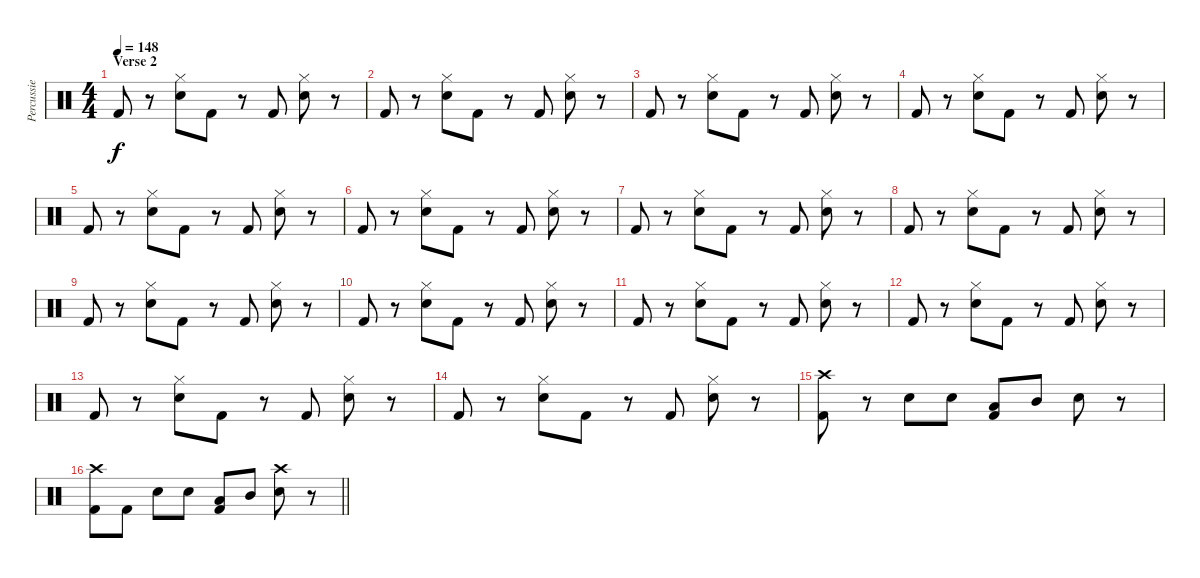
\track ("Percussie" "Percussie") {instrument percussion}
\staff {score}
\articulation defaults
\ts (4 4)
\section ("" "Verse 2")
\tempo 148
\clef neutral
\ks c "Kick (hit) 2".8{dy f}
r.8 ("Hi-Hat (closed)" "Electric Snare (hit)").8 "Kick (hit) 2".8 r.8 "Kick (hit) 2".8 ("Hi-Hat (closed)" "Electric Snare (hit)").8 r.8 |
"Kick (hit) 2".8 r.8 ("Hi-Hat (closed)" "Electric Snare (hit)").8 "Kick (hit) 2".8 r.8 "Kick (hit) 2".8 ("Hi-Hat (closed)" "Electric Snare (hit)").8 r.8 |
"Kick (hit) 2".8 r.8 ("Hi-Hat (closed)" "Electric Snare (hit)").8 "Kick (hit) 2".8 r.8 "Kick (hit) 2".8 ("Hi-Hat (closed)" "Electric Snare (hit)").8 r.8 |
"Kick (hit) 2".8 r.8 ("Hi-Hat (closed)" "Electric Snare (hit)").8 "Kick (hit) 2".8 r.8 "Kick (hit) 2".8 ("Hi-Hat (closed)" "Electric Snare (hit)").8 r.8 |
"Kick (hit) 2".8 r.8 ("Hi-Hat (closed)" "Electric Snare (hit)").8 "Kick (hit) 2".8 r.8 "Kick (hit) 2".8 ("Hi-Hat (closed)" "Electric Snare (hit)").8 r.8 |
"Kick (hit) 2".8 r.8 ("Hi-Hat (closed)" "Electric Snare (hit)").8 "Kick (hit) 2".8 r.8 "Kick (hit) 2".8 ("Hi-Hat (closed)" "Electric Snare (hit)").8 r.8 |
"Kick (hit) 2".8 r.8 ("Hi-Hat (closed)" "Electric Snare (hit)").8 "Kick (hit) 2".8 r.8 "Kick (hit) 2".8 ("Hi-Hat (closed)" "Electric Snare (hit)").8 r.8 |
"Kick (hit) 2".8 r.8 ("Hi-Hat (closed)" "Electric Snare (hit)").8 "Kick (hit) 2".8 r.8 "Kick (hit) 2".8 ("Hi-Hat (closed)" "Electric Snare (hit)").8 r.8 |
"Kick (hit) 2".8 r.8 ("Hi-Hat (closed)" "Electric Snare (hit)").8 "Kick (hit) 2".8 r.8 "Kick (hit) 2".8 ("Hi-Hat (closed)" "Electric Snare (hit)").8 r.8 |
"Kick (hit) 2".8 r.8 ("Hi-Hat (closed)" "Electric Snare (hit)").8 "Kick (hit) 2".8 r.8 "Kick (hit) 2".8 ("Hi-Hat (closed)" "Electric Snare (hit)").8 r.8 |
"Kick (hit) 2".8 r.8 ("Hi-Hat (closed)" "Electric Snare (hit)").8 "Kick (hit) 2".8 r.8 "Kick (hit) 2".8 ("Hi-Hat (closed)" "Electric Snare (hit)").8 r.8 |
"Kick (hit) 2".8 r.8 ("Hi-Hat (closed)" "Electric Snare (hit)").8 "Kick (hit) 2".8 r.8 "Kick (hit) 2".8 ("Hi-Hat (closed)" "Electric Snare (hit)").8 r.8 |
"Kick (hit) 2".8 r.8 ("Hi-Hat (closed)" "Electric Snare (hit)").8 "Kick (hit) 2".8 r.8 "Kick (hit) 2".8 ("Hi-Hat (closed)" "Electric Snare (hit)").8 r.8 |
"Kick (hit) 2".8 r.8 ("Hi-Hat (closed)" "Electric Snare (hit)").8 "Kick (hit) 2".8 r.8 "Kick (hit) 2".8 ("Hi-Hat (closed)" "Electric Snare (hit)").8 r.8 |
("Crash high (hit)" "Kick (hit) 2").8 r.8 "Electric Snare (hit)".8 "Electric Snare (hit)".8 ("Low Tom (hit)" "Kick (hit) 2").8 "Mid Tom (hit)".8 "Electric Snare (hit)".8 r.8 |
\barLineRight lightlight
("Crash high (hit)" "Kick (hit) 2").8 "Kick (hit) 2".8 "Electric Snare (hit)".8 "Electric Snare (hit)".8 ("Low Tom (hit)" "Kick (hit) 2").8 "Mid Tom (hit)".8 ("Crash high (hit)" "Electric Snare (hit)").8 r.8
